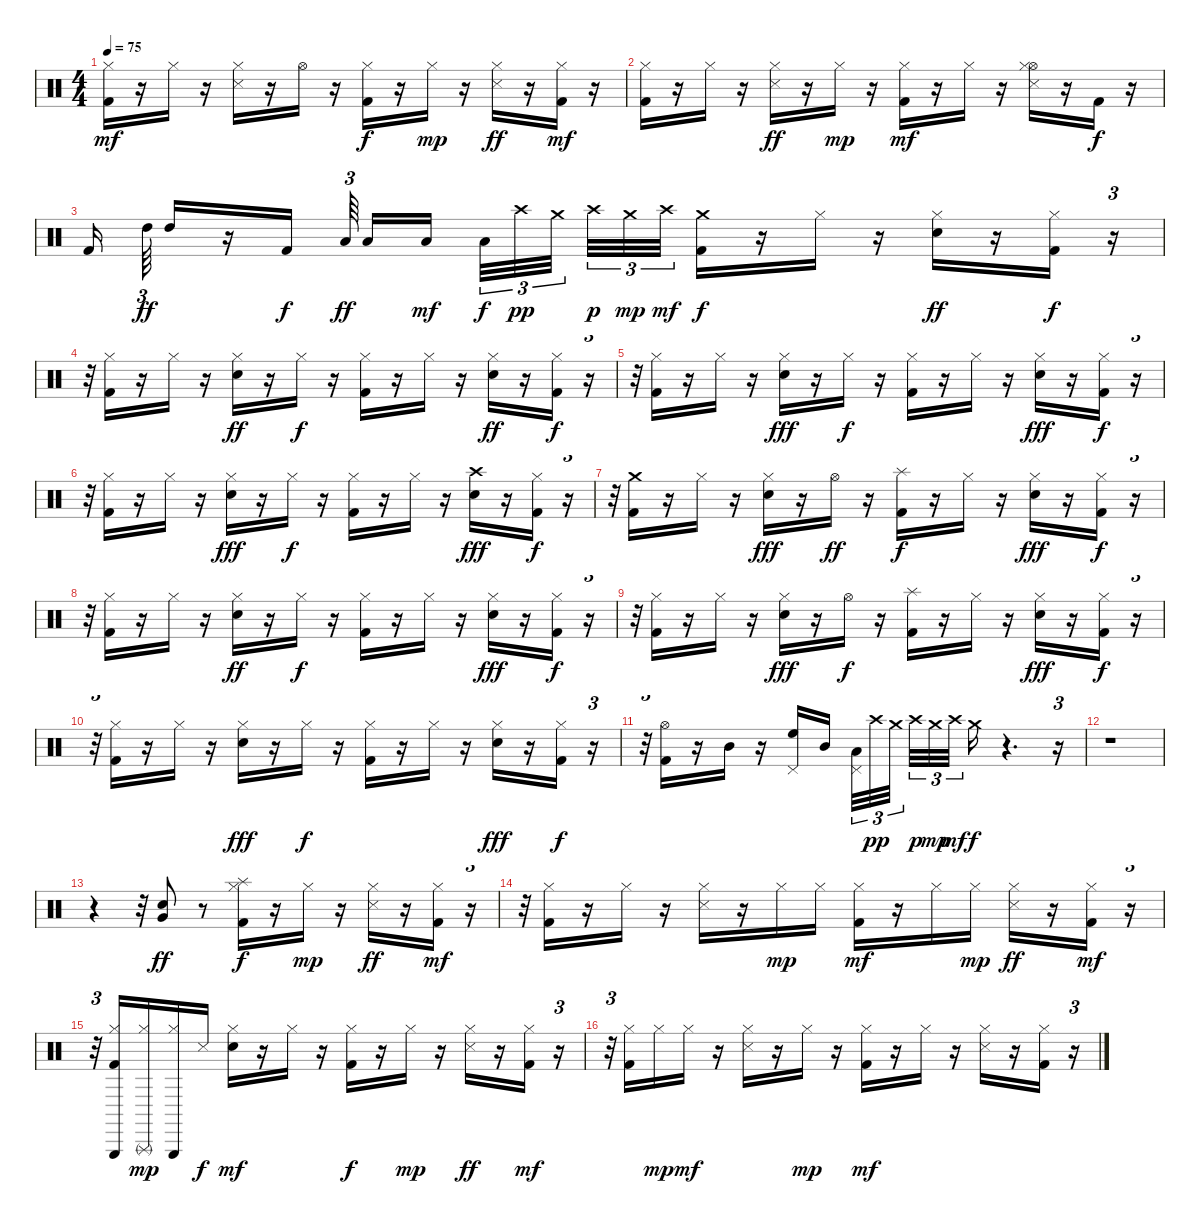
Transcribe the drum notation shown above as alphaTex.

\track "" {instrument percussion}
\staff {score}
\articulation defaults
\ts (4 4)
\tempo 75
\clef neutral
\ks c
("Kick (hit) 2" "Hi-Hat (closed)").16{dy mf} r.16 "Hi-Hat (closed)".16 r.16 ("Snare (side stick) 3" "Hi-Hat (closed)").16 r.16 "Hi-Hat (open)".16 r.16 ("Hi-Hat (closed)" "Kick (hit) 2").16{dy f} r.16 "Hi-Hat (closed)".16{dy mp} r.16 ("Snare (side stick) 3" "Hi-Hat (closed)").16{dy ff} r.16 ("Hi-Hat (closed)" "Kick (hit) 2").16{dy mf} r.16 |
("Kick (hit) 2" "Hi-Hat (closed)").16 r.16 "Hi-Hat (closed)".16 r.16 ("Hi-Hat (closed)" "Snare (side stick) 3").16{dy ff} r.16 "Hi-Hat (closed)".16{dy mp} r.16 ("Kick (hit) 2" "Hi-Hat (closed)").16{dy mf} r.16 "Hi-Hat (closed)".16 r.16 ("Hi-Hat (open)" "Snare (side stick) 3" "Hi-Hat (closed)").16 r.16 "Kick (hit) 2".16{dy f} r.16 |
"Kick (hit) 2".16{beam splitsecondary} "High Tom (hit)".64{tu (3 2) dy ff} "High Tom (hit)".16 r.16 "Kick (hit) 2".16{dy f} "Low Tom (hit)".64{tu (3 2) dy ff beam splitsecondary} "Low Tom (hit)".16 "Low Floor Tom (hit)".16{dy mf beam splitsecondary} "Low Floor Tom (hit)".32{tu (3 2) dy f} "Crash high (hit)".32{tu (3 2) dy pp} "Crash medium (hit)".32{tu (3 2) beam splitsecondary} "Crash high (hit)".32{tu (3 2) dy p} "Crash medium (hit)".32{tu (3 2) dy mp} "Crash high (hit)".32{tu (3 2) dy mf} ("Kick (hit) 2" "Crash medium (hit)").16{dy f} r.16 "Hi-Hat (closed)".16 r.16 ("Electric Snare (hit)" "Hi-Hat (closed)").16{dy ff} r.16 ("Hi-Hat (closed)" "Kick (hit) 2").16{dy f} r.16{tu (3 2)} |
r.32{tu (3 2)} ("Kick (hit) 2" "Hi-Hat (closed)").16 r.16 "Hi-Hat (closed)".16 r.16 ("Electric Snare (hit)" "Hi-Hat (closed)").16{dy ff} r.16 "Hi-Hat (closed)".16{dy f} r.16 ("Hi-Hat (closed)" "Kick (hit) 2").16 r.16 "Hi-Hat (closed)".16 r.16 ("Electric Snare (hit)" "Hi-Hat (closed)").16{dy ff} r.16 ("Hi-Hat (closed)" "Kick (hit) 2").16{dy f} r.16{tu (3 2)} |
r.32{tu (3 2)} ("Hi-Hat (closed)" "Kick (hit) 2").16 r.16 "Hi-Hat (closed)".16 r.16 ("Electric Snare (hit)" "Hi-Hat (closed)").16{dy fff} r.16 "Hi-Hat (closed)".16{dy f} r.16 ("Kick (hit) 2" "Hi-Hat (closed)").16 r.16 "Hi-Hat (closed)".16 r.16 ("Hi-Hat (closed)" "Electric Snare (hit)").16{dy fff} r.16 ("Hi-Hat (closed)" "Kick (hit) 2").16{dy f} r.16{tu (3 2)} |
r.32{tu (3 2)} ("Kick (hit) 2" "Hi-Hat (closed)").16 r.16 "Hi-Hat (closed)".16 r.16 ("Hi-Hat (closed)" "Electric Snare (hit)").16{dy fff} r.16 "Hi-Hat (closed)".16{dy f} r.16 ("Kick (hit) 2" "Hi-Hat (closed)").16 r.16 "Hi-Hat (closed)".16 r.16 ("Electric Snare (hit)" "Crash high (hit)").16{dy fff} r.16 ("Kick (hit) 2" "Hi-Hat (closed)").16{dy f} r.16{tu (3 2)} |
r.32{tu (3 2)} ("Crash medium (hit)" "Kick (hit) 2").16 r.16 "Hi-Hat (closed)".16 r.16 ("Electric Snare (hit)" "Hi-Hat (closed)").16{dy fff} r.16 "Hi-Hat (open)".16{dy ff} r.16 ("Kick (hit) 2" "Splash (hit)").16{dy f} r.16 "Hi-Hat (closed)".16 r.16 ("Hi-Hat (closed)" "Electric Snare (hit)").16{dy fff} r.16 ("Hi-Hat (closed)" "Kick (hit) 2").16{dy f} r.16{tu (3 2)} |
r.32{tu (3 2)} ("Hi-Hat (closed)" "Kick (hit) 2").16 r.16 "Hi-Hat (closed)".16 r.16 ("Electric Snare (hit)" "Hi-Hat (closed)").16{dy ff} r.16 "Hi-Hat (closed)".16{dy f} r.16 ("Kick (hit) 2" "Hi-Hat (closed)").16 r.16 "Hi-Hat (closed)".16 r.16 ("Hi-Hat (closed)" "Electric Snare (hit)").16{dy fff} r.16 ("Kick (hit) 2" "Hi-Hat (closed)").16{dy f} r.16{tu (3 2)} |
r.32{tu (3 2)} ("Hi-Hat (closed)" "Kick (hit) 2").16 r.16 "Hi-Hat (closed)".16 r.16 ("Electric Snare (hit)" "Hi-Hat (closed)").16{dy fff} r.16 "Hi-Hat (open)".16{dy f} r.16 ("Splash (hit)" "Kick (hit) 2").16 r.16 "Hi-Hat (closed)".16 r.16 ("Electric Snare (hit)" "Hi-Hat (closed)").16{dy fff} r.16 ("Hi-Hat (closed)" "Kick (hit) 2").16{dy f} r.16{tu (3 2)} |
r.32{tu (3 2)} ("Hi-Hat (closed)" "Kick (hit) 2").16 r.16 "Hi-Hat (closed)".16 r.16 ("Electric Snare (hit)" "Hi-Hat (closed)").16{dy fff} r.16 "Hi-Hat (closed)".16{dy f} r.16 ("Hi-Hat (closed)" "Kick (hit) 2").16 r.16 "Hi-Hat (closed)".16 r.16 ("Hi-Hat (closed)" "Electric Snare (hit)").16{dy fff} r.16 ("Hi-Hat (closed)" "Kick (hit) 2").16{dy f} r.16{tu (3 2)} |
r.32{tu (3 2)} ("Hi-Hat (open)" "Kick (hit) 2").16 r.16 "Mid Tom (hit)".16 r.16 ("High Floor Tom (hit)" "Pedal Hi-Hat (hit)").16 "Mid Tom (hit)".16{beam splitsecondary} ("Low Tom (hit)" "Pedal Hi-Hat (hit)").32{tu (3 2)} "Crash high (hit)".32{tu (3 2) dy pp} "Crash medium (hit)".32{tu (3 2) beam splitsecondary} "Crash high (hit)".32{tu (3 2) dy p} "Crash medium (hit)".32{tu (3 2) dy mp} "Crash high (hit)".32{tu (3 2) dy mf} "Crash medium (hit)".16{dy f} r.4{d} r.16{tu (3 2)} |
r.1 |
r.4 r.32{tu (3 2)} ("Electric Snare (hit)" "Very Low Tom (hit)").8{dy ff} r.8 ("Kick (hit) 2" "Splash (hit)" "Hi-Hat (closed)").16{dy f} r.16 "Hi-Hat (closed)".16{dy mp} r.16 ("Snare (side stick) 3" "Hi-Hat (closed)").16{dy ff} r.16 ("Hi-Hat (closed)" "Kick (hit) 2").16{dy mf} r.16{tu (3 2)} |
r.32{tu (3 2)} ("Hi-Hat (closed)" "Kick (hit) 2").16 r.16 "Hi-Hat (closed)".16 r.16 ("Snare (side stick) 3" "Hi-Hat (closed)").16 r.16 "Hi-Hat (closed)".16{dy mp} "Hi-Hat (closed)".16 ("Hi-Hat (closed)" "Kick (hit) 2").16{dy mf} r.16 "Hi-Hat (closed)".16 "Hi-Hat (closed)".16{dy mp} ("Hi-Hat (closed)" "Snare (side stick) 3").16{dy ff} r.16 ("Hi-Hat (closed)" "Kick (hit) 2").16{dy mf} r.16{tu (3 2)} |
r.32{tu (3 2)} ("Kick (hit) 2" "Triangle (hit)" "Hi-Hat (closed)").16 ("Hi-Hat (closed)" "Triangle (rnute)").16{dy mp} ("Hi-Hat (closed)" "Triangle (hit)").16 "Snare (side stick) 3".16{dy f} ("Hi-Hat (closed)" "Snare (hit) 2").16{dy mf} r.16 "Hi-Hat (closed)".16 r.16 ("Kick (hit) 2" "Hi-Hat (closed)").16{dy f} r.16 "Hi-Hat (closed)".16{dy mp} r.16 ("Snare (side stick) 3" "Hi-Hat (closed)").16{dy ff} r.16 ("Hi-Hat (closed)" "Kick (hit) 2").16{dy mf} r.16{tu (3 2)} |
r.32{tu (3 2)} ("Kick (hit) 2" "Hi-Hat (closed)").16 "Hi-Hat (closed)".16{dy mp} "Hi-Hat (closed)".16{dy mf} r.16 ("Snare (side stick) 3" "Hi-Hat (closed)").16 r.16 "Hi-Hat (closed)".16{dy mp} r.16 ("Hi-Hat (closed)" "Kick (hit) 2").16{dy mf} r.16 "Hi-Hat (closed)".16 r.16 ("Snare (side stick) 3" "Hi-Hat (closed)").16 r.16 ("Hi-Hat (closed)" "Kick (hit) 2").16 r.16{tu (3 2)}
